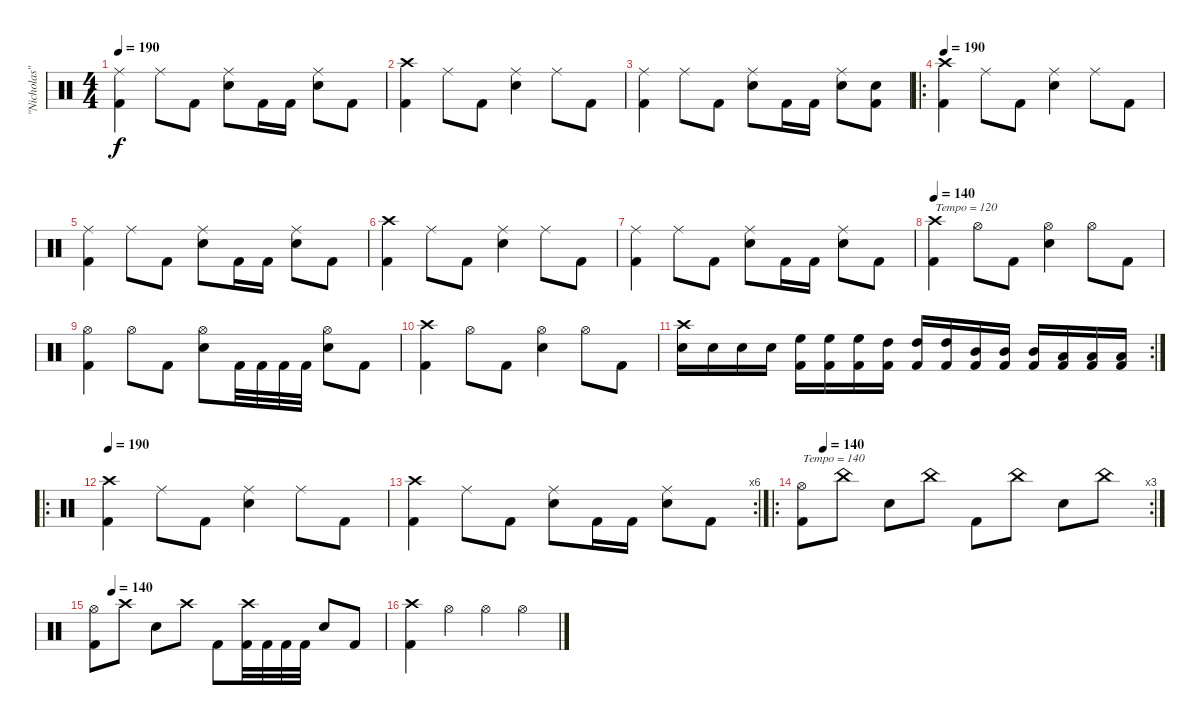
\track ("\"Nicholas\"" "\"Nicholas\"") {instrument percussion}
\staff {score}
\articulation defaults
\ts (4 4)
\tempo 190
\clef neutral
\ks c
("Kick (hit) 2" "Ride (middle)").4{dy f} "Ride (middle)".8 "Kick (hit) 2".8 ("Snare (hit) 2" "Ride (middle)").8 "Kick (hit) 2".16 "Kick (hit) 2".16 ("Snare (hit) 2" "Ride (middle)").8 "Kick (hit) 2".8 |
("Kick (hit) 2" "Crash high (hit)").4 "Ride (middle)".8 "Kick (hit) 2".8 ("Snare (hit) 2" "Ride (middle)").4 "Ride (middle)".8 "Kick (hit) 2".8 |
("Kick (hit) 2" "Ride (middle)").4 "Ride (middle)".8 "Kick (hit) 2".8 ("Snare (hit) 2" "Ride (middle)").8 "Kick (hit) 2".16 "Kick (hit) 2".16 ("Snare (hit) 2" "Ride (middle)").8 ("Kick (hit) 2" "Snare (hit) 2").8 |
\ro
\tempo 190
("Kick (hit) 2" "Crash high (hit)").4 "Ride (middle)".8 "Kick (hit) 2".8 ("Snare (hit) 2" "Ride (middle)").4 "Ride (middle)".8 "Kick (hit) 2".8 |
("Kick (hit) 2" "Ride (middle)").4 "Ride (middle)".8 "Kick (hit) 2".8 ("Snare (hit) 2" "Ride (middle)").8 "Kick (hit) 2".16 "Kick (hit) 2".16 ("Snare (hit) 2" "Ride (middle)").8 "Kick (hit) 2".8 |
("Kick (hit) 2" "Crash high (hit)").4 "Ride (middle)".8 "Kick (hit) 2".8 ("Snare (hit) 2" "Ride (middle)").4 "Ride (middle)".8 "Kick (hit) 2".8 |
("Kick (hit) 2" "Ride (middle)").4 "Ride (middle)".8 "Kick (hit) 2".8 ("Snare (hit) 2" "Ride (middle)").8 "Kick (hit) 2".16 "Kick (hit) 2".16 ("Snare (hit) 2" "Ride (middle)").8 "Kick (hit) 2".8 |
\tempo 140
("Kick (hit) 2" "Crash high (hit)").4{txt "Tempo = 120"} "Hi-Hat (open)".8 "Kick (hit) 2".8 ("Snare (hit) 2" "Hi-Hat (open)").4 "Hi-Hat (open)".8 "Kick (hit) 2".8 |
("Kick (hit) 2" "Hi-Hat (open)").4 "Hi-Hat (open)".8 "Kick (hit) 2".8 ("Snare (hit) 2" "Hi-Hat (open)").8 "Kick (hit) 2".32 "Kick (hit) 2".32 "Kick (hit) 2".32 "Kick (hit) 2".32 ("Snare (hit) 2" "Hi-Hat (open)").8 "Kick (hit) 2".8 |
("Kick (hit) 2" "Crash high (hit)").4 "Hi-Hat (open)".8 "Kick (hit) 2".8 ("Snare (hit) 2" "Hi-Hat (open)").4 "Hi-Hat (open)".8 "Kick (hit) 2".8 |
\rc 2
("Snare (hit) 2" "Crash high (hit)").16 "Snare (hit) 2".16 "Snare (hit) 2".16 "Snare (hit) 2".16 ("Kick (hit) 2" "High Floor Tom (hit)").16 ("Kick (hit) 2" "High Floor Tom (hit)").16 ("Kick (hit) 2" "High Floor Tom (hit)").16 ("Kick (hit) 2" "High Tom (hit)").16 ("Kick (hit) 2" "High Tom (hit)").16 ("Kick (hit) 2" "High Tom (hit)").16 ("Kick (hit) 2" "Mid Tom (hit)").16 ("Kick (hit) 2" "Mid Tom (hit)").16 ("Kick (hit) 2" "Mid Tom (hit)").16 ("Kick (hit) 2" "Low Tom (hit)").16 ("Kick (hit) 2" "Low Tom (hit)").16 ("Kick (hit) 2" "Low Tom (hit)").16 |
\ro
\tempo 190
("Kick (hit) 2" "Crash high (hit)").4 "Ride (middle)".8 "Kick (hit) 2".8 ("Snare (hit) 2" "Ride (middle)").4 "Ride (middle)".8 "Kick (hit) 2".8 |
\rc 6
("Kick (hit) 2" "Crash high (hit)").4 "Ride (middle)".8 "Kick (hit) 2".8 ("Snare (hit) 2" "Ride (middle)").8 "Kick (hit) 2".16 "Kick (hit) 2".16 ("Snare (hit) 2" "Ride (middle)").8 "Kick (hit) 2".8 |
\ro
\rc 3
\tempo (140 0.0625)
("Kick (hit) 2" "Hi-Hat (open)").8{txt "Tempo = 140"} "China (hit)".8 "Snare (hit) 2".8 "China (hit)".8 "Kick (hit) 2".8 "China (hit)".8 "Snare (hit) 2".8 "China (hit)".8 |
\tempo (140 0.0625)
("Kick (hit) 2" "Hi-Hat (open)").8 "Crash high (hit)".8 "Snare (hit) 2".8 "Crash high (hit)".8 "Kick (hit) 2".8 ("Kick (hit) 2" "Crash high (hit)").32 "Kick (hit) 2".32 "Kick (hit) 2".32 "Kick (hit) 2".32 "Snare (hit) 2".8 "Kick (hit) 2".8 |
("Kick (hit) 2" "Crash high (hit)").4 "Hi-Hat (open)".4 "Hi-Hat (open)".4 "Hi-Hat (open)".4
